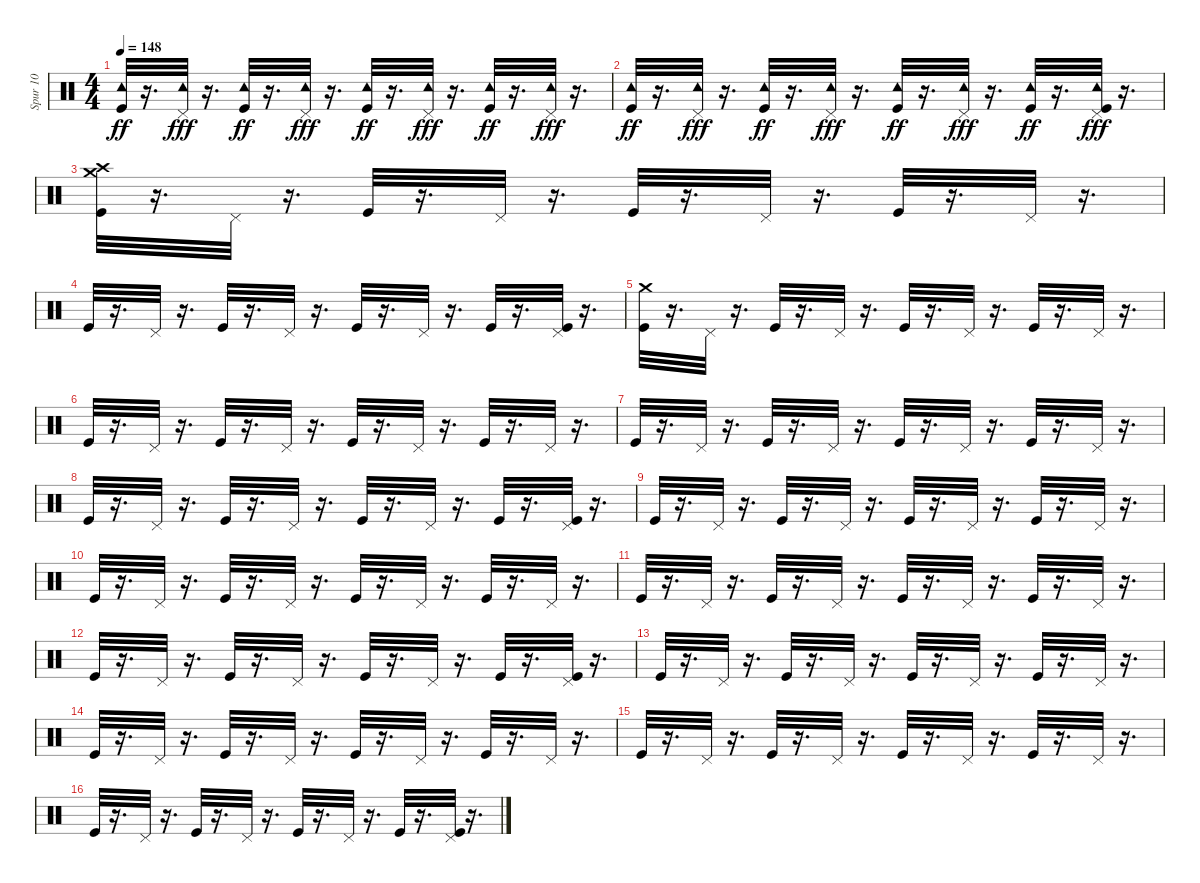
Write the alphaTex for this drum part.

\track ("Spur 10" "Spur 10") {instrument percussion}
\staff {score}
\articulation defaults
\ts (4 4)
\tempo 148
\clef neutral
\ks c
("Kick (hit)" "Tambourine (hit)").32{dy ff} r.16{d} ("Tambourine (hit)" "Pedal Hi-Hat (hit)").32{dy fff} r.16{d} ("Kick (hit)" "Tambourine (hit)").32{dy ff} r.16{d} ("Tambourine (hit)" "Pedal Hi-Hat (hit)").32{dy fff} r.16{d} ("Kick (hit)" "Tambourine (hit)").32{dy ff} r.16{d} ("Tambourine (hit)" "Pedal Hi-Hat (hit)").32{dy fff} r.16{d} ("Kick (hit)" "Tambourine (hit)").32{dy ff} r.16{d} ("Tambourine (hit)" "Pedal Hi-Hat (hit)").32{dy fff} r.16{d} |
("Kick (hit)" "Tambourine (hit)").32{dy ff} r.16{d} ("Tambourine (hit)" "Pedal Hi-Hat (hit)").32{dy fff} r.16{d} ("Kick (hit)" "Tambourine (hit)").32{dy ff} r.16{d} ("Tambourine (hit)" "Pedal Hi-Hat (hit)").32{dy fff} r.16{d} ("Kick (hit)" "Tambourine (hit)").32{dy ff} r.16{d} ("Tambourine (hit)" "Pedal Hi-Hat (hit)").32{dy fff} r.16{d} ("Kick (hit)" "Tambourine (hit)").32{dy ff} r.16{d} ("Kick (hit)" "Tambourine (hit)" "Pedal Hi-Hat (hit)").32{dy fff} r.16{d} |
("Kick (hit)" "Crash high (hit)" "Crash medium (hit)").32 r.16{d} "Pedal Hi-Hat (hit)".32 r.16{d} "Kick (hit)".32 r.16{d} "Pedal Hi-Hat (hit)".32 r.16{d} "Kick (hit)".32 r.16{d} "Pedal Hi-Hat (hit)".32 r.16{d} "Kick (hit)".32 r.16{d} "Pedal Hi-Hat (hit)".32 r.16{d} |
"Kick (hit)".32 r.16{d} "Pedal Hi-Hat (hit)".32 r.16{d} "Kick (hit)".32 r.16{d} "Pedal Hi-Hat (hit)".32 r.16{d} "Kick (hit)".32 r.16{d} "Pedal Hi-Hat (hit)".32 r.16{d} "Kick (hit)".32 r.16{d} ("Kick (hit)" "Pedal Hi-Hat (hit)").32 r.16{d} |
("Kick (hit)" "Crash medium (hit)").32 r.16{d} "Pedal Hi-Hat (hit)".32 r.16{d} "Kick (hit)".32 r.16{d} "Pedal Hi-Hat (hit)".32 r.16{d} "Kick (hit)".32 r.16{d} "Pedal Hi-Hat (hit)".32 r.16{d} "Kick (hit)".32 r.16{d} "Pedal Hi-Hat (hit)".32 r.16{d} |
"Kick (hit)".32 r.16{d} "Pedal Hi-Hat (hit)".32 r.16{d} "Kick (hit)".32 r.16{d} "Pedal Hi-Hat (hit)".32 r.16{d} "Kick (hit)".32 r.16{d} "Pedal Hi-Hat (hit)".32 r.16{d} "Kick (hit)".32 r.16{d} "Pedal Hi-Hat (hit)".32 r.16{d} |
"Kick (hit)".32 r.16{d} "Pedal Hi-Hat (hit)".32 r.16{d} "Kick (hit)".32 r.16{d} "Pedal Hi-Hat (hit)".32 r.16{d} "Kick (hit)".32 r.16{d} "Pedal Hi-Hat (hit)".32 r.16{d} "Kick (hit)".32 r.16{d} "Pedal Hi-Hat (hit)".32 r.16{d} |
"Kick (hit)".32 r.16{d} "Pedal Hi-Hat (hit)".32 r.16{d} "Kick (hit)".32 r.16{d} "Pedal Hi-Hat (hit)".32 r.16{d} "Kick (hit)".32 r.16{d} "Pedal Hi-Hat (hit)".32 r.16{d} "Kick (hit)".32 r.16{d} ("Kick (hit)" "Pedal Hi-Hat (hit)").32 r.16{d} |
"Kick (hit)".32 r.16{d} "Pedal Hi-Hat (hit)".32 r.16{d} "Kick (hit)".32 r.16{d} "Pedal Hi-Hat (hit)".32 r.16{d} "Kick (hit)".32 r.16{d} "Pedal Hi-Hat (hit)".32 r.16{d} "Kick (hit)".32 r.16{d} "Pedal Hi-Hat (hit)".32 r.16{d} |
"Kick (hit)".32 r.16{d} "Pedal Hi-Hat (hit)".32 r.16{d} "Kick (hit)".32 r.16{d} "Pedal Hi-Hat (hit)".32 r.16{d} "Kick (hit)".32 r.16{d} "Pedal Hi-Hat (hit)".32 r.16{d} "Kick (hit)".32 r.16{d} "Pedal Hi-Hat (hit)".32 r.16{d} |
"Kick (hit)".32 r.16{d} "Pedal Hi-Hat (hit)".32 r.16{d} "Kick (hit)".32 r.16{d} "Pedal Hi-Hat (hit)".32 r.16{d} "Kick (hit)".32 r.16{d} "Pedal Hi-Hat (hit)".32 r.16{d} "Kick (hit)".32 r.16{d} "Pedal Hi-Hat (hit)".32 r.16{d} |
"Kick (hit)".32 r.16{d} "Pedal Hi-Hat (hit)".32 r.16{d} "Kick (hit)".32 r.16{d} "Pedal Hi-Hat (hit)".32 r.16{d} "Kick (hit)".32 r.16{d} "Pedal Hi-Hat (hit)".32 r.16{d} "Kick (hit)".32 r.16{d} ("Kick (hit)" "Pedal Hi-Hat (hit)").32 r.16{d} |
"Kick (hit)".32 r.16{d} "Pedal Hi-Hat (hit)".32 r.16{d} "Kick (hit)".32 r.16{d} "Pedal Hi-Hat (hit)".32 r.16{d} "Kick (hit)".32 r.16{d} "Pedal Hi-Hat (hit)".32 r.16{d} "Kick (hit)".32 r.16{d} "Pedal Hi-Hat (hit)".32 r.16{d} |
"Kick (hit)".32 r.16{d} "Pedal Hi-Hat (hit)".32 r.16{d} "Kick (hit)".32 r.16{d} "Pedal Hi-Hat (hit)".32 r.16{d} "Kick (hit)".32 r.16{d} "Pedal Hi-Hat (hit)".32 r.16{d} "Kick (hit)".32 r.16{d} "Pedal Hi-Hat (hit)".32 r.16{d} |
"Kick (hit)".32 r.16{d} "Pedal Hi-Hat (hit)".32 r.16{d} "Kick (hit)".32 r.16{d} "Pedal Hi-Hat (hit)".32 r.16{d} "Kick (hit)".32 r.16{d} "Pedal Hi-Hat (hit)".32 r.16{d} "Kick (hit)".32 r.16{d} "Pedal Hi-Hat (hit)".32 r.16{d} |
"Kick (hit)".32 r.16{d} "Pedal Hi-Hat (hit)".32 r.16{d} "Kick (hit)".32 r.16{d} "Pedal Hi-Hat (hit)".32 r.16{d} "Kick (hit)".32 r.16{d} "Pedal Hi-Hat (hit)".32 r.16{d} "Kick (hit)".32 r.16{d} ("Kick (hit)" "Pedal Hi-Hat (hit)").32 r.16{d}
